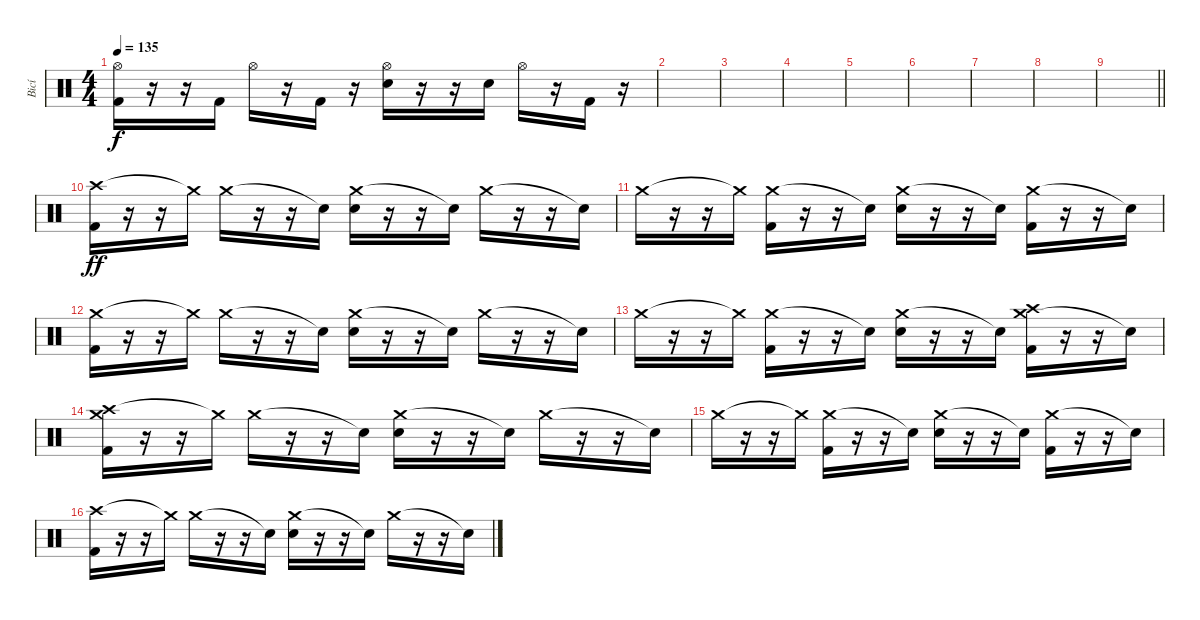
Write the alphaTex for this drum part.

\track ("Bicí" "Bicí") {instrument percussion}
\staff {score}
\articulation defaults
\ts (4 4)
\tempo 135
\clef neutral
\ks c
("Hi-Hat (open)" "Kick (hit) 2").16{dy f} r.16 r.16 "Kick (hit) 2".16 "Hi-Hat (open)".16 r.16 "Kick (hit) 2".16 r.16 ("Hi-Hat (open)" "Electric Snare (hit)").16 r.16 r.16 "Electric Snare (hit)".16 "Hi-Hat (open)".16 r.16 "Kick (hit) 2".16 r.16 |
|
|
|
|
|
|
|
\barLineRight lightlight
|
("Crash high (hit)" "Kick (hit) 2").16{dy ff} r.16 r.16 "Crash medium (hit)"{t}.16 "Crash medium (hit)".16 r.16 r.16 "Snare (hit)"{t}.16 ("Crash medium (hit)" "Electric Snare (hit)").16 r.16 r.16 "Snare (hit)"{t}.16 "Crash medium (hit)".16 r.16 r.16 "Snare (hit)"{t}.16 |
"Crash medium (hit)".16 r.16 r.16 "Crash medium (hit)"{t}.16 ("Crash medium (hit)" "Kick (hit) 2").16 r.16 r.16 "Snare (hit)"{t}.16 ("Crash medium (hit)" "Electric Snare (hit)").16 r.16 r.16 "Snare (hit)"{t}.16 ("Crash medium (hit)" "Kick (hit) 2").16 r.16 r.16 "Snare (hit)"{t}.16 |
("Crash medium (hit)" "Kick (hit) 2").16 r.16 r.16 "Crash medium (hit)"{t}.16 "Crash medium (hit)".16 r.16 r.16 "Snare (hit)"{t}.16 ("Crash medium (hit)" "Electric Snare (hit)").16 r.16 r.16 "Snare (hit)"{t}.16 "Crash medium (hit)".16 r.16 r.16 "Snare (hit)"{t}.16 |
"Crash medium (hit)".16 r.16 r.16 "Crash medium (hit)"{t}.16 ("Crash medium (hit)" "Kick (hit) 2").16 r.16 r.16 "Snare (hit)"{t}.16 ("Crash medium (hit)" "Electric Snare (hit)").16 r.16 r.16 "Snare (hit)"{t}.16 ("Crash medium (hit)" "Crash high (hit)" "Kick (hit) 2").16 r.16 r.16 "Snare (hit)"{t}.16 |
("Crash high (hit)" "Crash medium (hit)" "Kick (hit) 2").16 r.16 r.16 "Crash medium (hit)"{t}.16 "Crash medium (hit)".16 r.16 r.16 "Snare (hit)"{t}.16 ("Crash medium (hit)" "Electric Snare (hit)").16 r.16 r.16 "Snare (hit)"{t}.16 "Crash medium (hit)".16 r.16 r.16 "Snare (hit)"{t}.16 |
"Crash medium (hit)".16 r.16 r.16 "Crash medium (hit)"{t}.16 ("Crash medium (hit)" "Kick (hit) 2").16 r.16 r.16 "Snare (hit)"{t}.16 ("Crash medium (hit)" "Electric Snare (hit)").16 r.16 r.16 "Snare (hit)"{t}.16 ("Crash medium (hit)" "Kick (hit) 2").16 r.16 r.16 "Snare (hit)"{t}.16 |
("Crash high (hit)" "Kick (hit) 2").16 r.16 r.16 "Crash medium (hit)"{t}.16 "Crash medium (hit)".16 r.16 r.16 "Snare (hit)"{t}.16 ("Crash medium (hit)" "Electric Snare (hit)").16 r.16 r.16 "Snare (hit)"{t}.16 "Crash medium (hit)".16 r.16 r.16 "Snare (hit)"{t}.16
